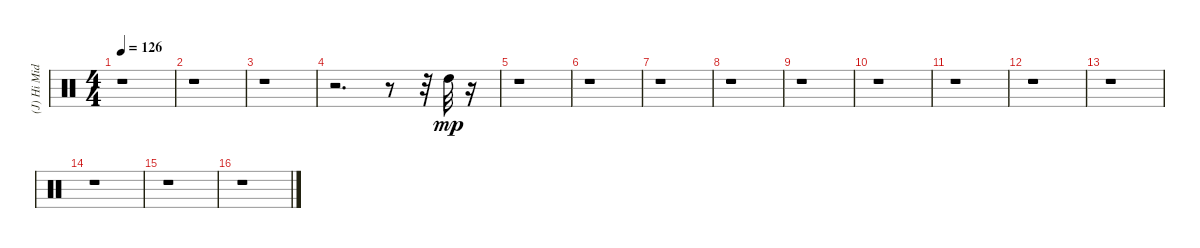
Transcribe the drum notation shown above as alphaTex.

\track ("(J) Hi Mid Tom" "(J) Hi Mid") {instrument percussion}
\staff {score}
\articulation defaults
\ts (4 4)
\tempo 126
\clef neutral
\ks c
r.1{dy ff} |
r.1 |
r.1 |
r.2{d} r.8 r.32 "High Tom (hit)".32{dy mp} r.16 |
r.1 |
r.1 |
r.1 |
r.1 |
r.1 |
r.1 |
r.1 |
r.1 |
r.1 |
r.1 |
r.1 |
r.1
